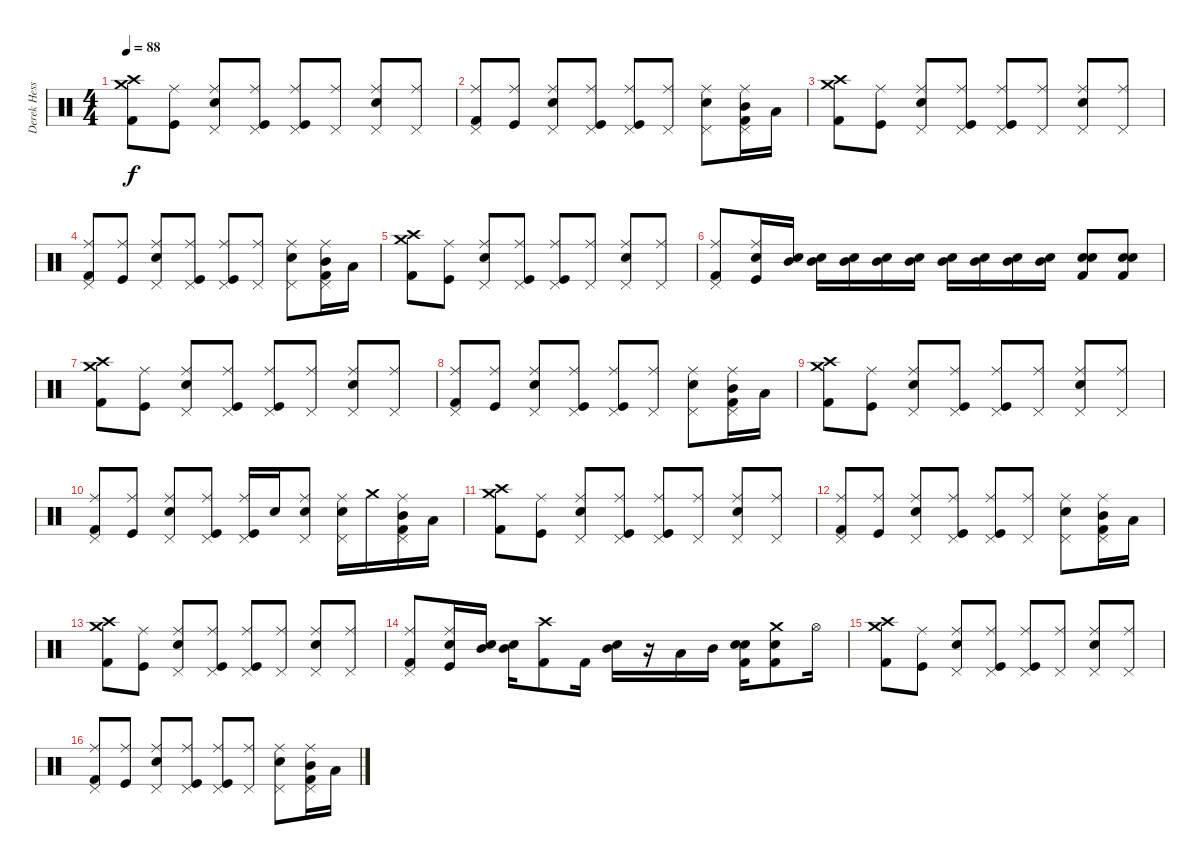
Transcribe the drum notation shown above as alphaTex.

\track ("Derek Hess" "Derek Hess") {instrument percussion}
\staff {score}
\articulation defaults
\ts (4 4)
\tempo 88
\clef neutral
\ks c
("Crash high (hit)" "Crash medium (hit)" "Kick (hit) 2").8{dy f} ("Ride (middle)" "Kick (hit)").8 ("Ride (middle)" "Pedal Hi-Hat (hit)" "Electric Snare (hit)").8 ("Ride (middle)" "Pedal Hi-Hat (hit)" "Kick (hit)").8 ("Ride (middle)" "Pedal Hi-Hat (hit)" "Kick (hit)").8 ("Ride (middle)" "Pedal Hi-Hat (hit)").8 ("Ride (middle)" "Pedal Hi-Hat (hit)" "Electric Snare (hit)").8 ("Ride (middle)" "Pedal Hi-Hat (hit)").8 |
("Ride (middle)" "Pedal Hi-Hat (hit)" "Kick (hit) 2").8 ("Ride (middle)" "Kick (hit)").8 ("Ride (middle)" "Pedal Hi-Hat (hit)" "Electric Snare (hit)").8 ("Ride (middle)" "Pedal Hi-Hat (hit)" "Kick (hit)").8 ("Ride (middle)" "Pedal Hi-Hat (hit)" "Kick (hit)").8 ("Ride (middle)" "Pedal Hi-Hat (hit)").8 ("Ride (middle)" "Pedal Hi-Hat (hit)" "Electric Snare (hit)").8 ("Ride (middle)" "Pedal Hi-Hat (hit)" "Mid Tom (hit)" "Kick (hit) 2").16 "Low Tom (hit)".16 |
("Crash high (hit)" "Crash medium (hit)" "Kick (hit) 2").8 ("Ride (middle)" "Kick (hit)").8 ("Ride (middle)" "Pedal Hi-Hat (hit)" "Electric Snare (hit)").8 ("Ride (middle)" "Pedal Hi-Hat (hit)" "Kick (hit)").8 ("Ride (middle)" "Pedal Hi-Hat (hit)" "Kick (hit)").8 ("Ride (middle)" "Pedal Hi-Hat (hit)").8 ("Ride (middle)" "Pedal Hi-Hat (hit)" "Electric Snare (hit)").8 ("Ride (middle)" "Pedal Hi-Hat (hit)").8 |
("Ride (middle)" "Pedal Hi-Hat (hit)" "Kick (hit) 2").8 ("Ride (middle)" "Kick (hit)").8 ("Ride (middle)" "Pedal Hi-Hat (hit)" "Electric Snare (hit)").8 ("Ride (middle)" "Pedal Hi-Hat (hit)" "Kick (hit)").8 ("Ride (middle)" "Pedal Hi-Hat (hit)" "Kick (hit)").8 ("Ride (middle)" "Pedal Hi-Hat (hit)").8 ("Ride (middle)" "Pedal Hi-Hat (hit)" "Electric Snare (hit)").8 ("Ride (middle)" "Pedal Hi-Hat (hit)" "Mid Tom (hit)" "Kick (hit) 2").16 "Low Tom (hit)".16 |
("Crash high (hit)" "Crash medium (hit)" "Kick (hit) 2").8 ("Ride (middle)" "Kick (hit)").8 ("Ride (middle)" "Pedal Hi-Hat (hit)" "Electric Snare (hit)").8 ("Ride (middle)" "Pedal Hi-Hat (hit)" "Kick (hit)").8 ("Ride (middle)" "Pedal Hi-Hat (hit)" "Kick (hit)").8 ("Ride (middle)" "Pedal Hi-Hat (hit)").8 ("Ride (middle)" "Pedal Hi-Hat (hit)" "Electric Snare (hit)").8 ("Ride (middle)" "Pedal Hi-Hat (hit)").8 |
("Ride (middle)" "Pedal Hi-Hat (hit)" "Kick (hit) 2").8 ("Ride (middle)" "Electric Snare (hit)" "Kick (hit)").16 ("Mid Tom (hit)" "Electric Snare (hit)").16 ("Mid Tom (hit)" "Electric Snare (hit)").16 ("Mid Tom (hit)" "Electric Snare (hit)").16 ("Mid Tom (hit)" "Electric Snare (hit)").16 ("Mid Tom (hit)" "Electric Snare (hit)").16 ("Mid Tom (hit)" "Electric Snare (hit)").16 ("Mid Tom (hit)" "Electric Snare (hit)").16 ("Mid Tom (hit)" "Electric Snare (hit)").16 ("Mid Tom (hit)" "Electric Snare (hit)").16 ("Snare (hit) 2" "Electric Snare (hit)" "Kick (hit) 2").8 ("Snare (hit) 2" "Electric Snare (hit)" "Kick (hit) 2").8 |
("Crash high (hit)" "Crash medium (hit)" "Kick (hit) 2").8 ("Ride (middle)" "Kick (hit)").8 ("Ride (middle)" "Pedal Hi-Hat (hit)" "Electric Snare (hit)").8 ("Ride (middle)" "Pedal Hi-Hat (hit)" "Kick (hit)").8 ("Ride (middle)" "Pedal Hi-Hat (hit)" "Kick (hit)").8 ("Ride (middle)" "Pedal Hi-Hat (hit)").8 ("Ride (middle)" "Pedal Hi-Hat (hit)" "Electric Snare (hit)").8 ("Ride (middle)" "Pedal Hi-Hat (hit)").8 |
("Ride (middle)" "Pedal Hi-Hat (hit)" "Kick (hit) 2").8 ("Ride (middle)" "Kick (hit)").8 ("Ride (middle)" "Pedal Hi-Hat (hit)" "Electric Snare (hit)").8 ("Ride (middle)" "Pedal Hi-Hat (hit)" "Kick (hit)").8 ("Ride (middle)" "Pedal Hi-Hat (hit)" "Kick (hit)").8 ("Ride (middle)" "Pedal Hi-Hat (hit)").8 ("Ride (middle)" "Pedal Hi-Hat (hit)" "Electric Snare (hit)").8 ("Ride (middle)" "Pedal Hi-Hat (hit)" "Mid Tom (hit)" "Kick (hit) 2").16 "Low Tom (hit)".16 |
("Crash high (hit)" "Crash medium (hit)" "Kick (hit) 2").8 ("Ride (middle)" "Kick (hit)").8 ("Ride (middle)" "Pedal Hi-Hat (hit)" "Electric Snare (hit)").8 ("Ride (middle)" "Pedal Hi-Hat (hit)" "Kick (hit)").8 ("Ride (middle)" "Pedal Hi-Hat (hit)" "Kick (hit)").8 ("Ride (middle)" "Pedal Hi-Hat (hit)").8 ("Ride (middle)" "Pedal Hi-Hat (hit)" "Electric Snare (hit)").8 ("Ride (middle)" "Pedal Hi-Hat (hit)").8 |
("Ride (middle)" "Pedal Hi-Hat (hit)" "Kick (hit) 2").8 ("Ride (middle)" "Kick (hit)").8 ("Ride (middle)" "Pedal Hi-Hat (hit)" "Electric Snare (hit)").8 ("Ride (middle)" "Pedal Hi-Hat (hit)" "Kick (hit)").8 ("Ride (middle)" "Pedal Hi-Hat (hit)" "Kick (hit)").16 "Electric Snare (hit)".16 ("Ride (middle)" "Pedal Hi-Hat (hit)" "Electric Snare (hit)").8 ("Ride (middle)" "Pedal Hi-Hat (hit)" "Electric Snare (hit)").16 "Crash medium (hit)".16 ("Ride (middle)" "Pedal Hi-Hat (hit)" "Mid Tom (hit)" "Kick (hit) 2").16 "Low Tom (hit)".16 |
("Crash high (hit)" "Crash medium (hit)" "Kick (hit) 2").8 ("Ride (middle)" "Kick (hit)").8 ("Ride (middle)" "Pedal Hi-Hat (hit)" "Electric Snare (hit)").8 ("Ride (middle)" "Pedal Hi-Hat (hit)" "Kick (hit)").8 ("Ride (middle)" "Pedal Hi-Hat (hit)" "Kick (hit)").8 ("Ride (middle)" "Pedal Hi-Hat (hit)").8 ("Ride (middle)" "Pedal Hi-Hat (hit)" "Electric Snare (hit)").8 ("Ride (middle)" "Pedal Hi-Hat (hit)").8 |
("Ride (middle)" "Pedal Hi-Hat (hit)" "Kick (hit) 2").8 ("Ride (middle)" "Kick (hit)").8 ("Ride (middle)" "Pedal Hi-Hat (hit)" "Electric Snare (hit)").8 ("Ride (middle)" "Pedal Hi-Hat (hit)" "Kick (hit)").8 ("Ride (middle)" "Pedal Hi-Hat (hit)" "Kick (hit)").8 ("Ride (middle)" "Pedal Hi-Hat (hit)").8 ("Ride (middle)" "Pedal Hi-Hat (hit)" "Electric Snare (hit)").8 ("Ride (middle)" "Pedal Hi-Hat (hit)" "Mid Tom (hit)" "Kick (hit) 2").16 "Low Tom (hit)".16 |
("Crash high (hit)" "Crash medium (hit)" "Kick (hit) 2").8 ("Ride (middle)" "Kick (hit)").8 ("Ride (middle)" "Pedal Hi-Hat (hit)" "Electric Snare (hit)").8 ("Ride (middle)" "Pedal Hi-Hat (hit)" "Kick (hit)").8 ("Ride (middle)" "Pedal Hi-Hat (hit)" "Kick (hit)").8 ("Ride (middle)" "Pedal Hi-Hat (hit)").8 ("Ride (middle)" "Pedal Hi-Hat (hit)" "Electric Snare (hit)").8 ("Ride (middle)" "Pedal Hi-Hat (hit)").8 |
("Ride (middle)" "Pedal Hi-Hat (hit)" "Kick (hit) 2").8 ("Ride (middle)" "Electric Snare (hit)" "Kick (hit)").16 ("Mid Tom (hit)" "Electric Snare (hit)").16 ("Mid Tom (hit)" "Electric Snare (hit)").16 ("Crash high (hit)" "Kick (hit) 2").8 "Kick (hit) 2".16 ("Mid Tom (hit)" "Electric Snare (hit)").16 r.16 "Low Tom (hit)".16 "Mid Tom (hit)".16 ("Snare (hit) 2" "Electric Snare (hit)" "Kick (hit) 2").16 ("Crash medium (hit)" "Electric Snare (hit)" "Kick (hit) 2").8 "Hi-Hat (open)".16 |
("Crash high (hit)" "Crash medium (hit)" "Kick (hit) 2").8 ("Ride (middle)" "Kick (hit)").8 ("Ride (middle)" "Pedal Hi-Hat (hit)" "Electric Snare (hit)").8 ("Ride (middle)" "Pedal Hi-Hat (hit)" "Kick (hit)").8 ("Ride (middle)" "Pedal Hi-Hat (hit)" "Kick (hit)").8 ("Ride (middle)" "Pedal Hi-Hat (hit)").8 ("Ride (middle)" "Pedal Hi-Hat (hit)" "Electric Snare (hit)").8 ("Ride (middle)" "Pedal Hi-Hat (hit)").8 |
("Ride (middle)" "Pedal Hi-Hat (hit)" "Kick (hit) 2").8 ("Ride (middle)" "Kick (hit)").8 ("Ride (middle)" "Pedal Hi-Hat (hit)" "Electric Snare (hit)").8 ("Ride (middle)" "Pedal Hi-Hat (hit)" "Kick (hit)").8 ("Ride (middle)" "Pedal Hi-Hat (hit)" "Kick (hit)").8 ("Ride (middle)" "Pedal Hi-Hat (hit)").8 ("Ride (middle)" "Pedal Hi-Hat (hit)" "Electric Snare (hit)").8 ("Ride (middle)" "Pedal Hi-Hat (hit)" "Mid Tom (hit)" "Kick (hit) 2").16 "Low Tom (hit)".16
